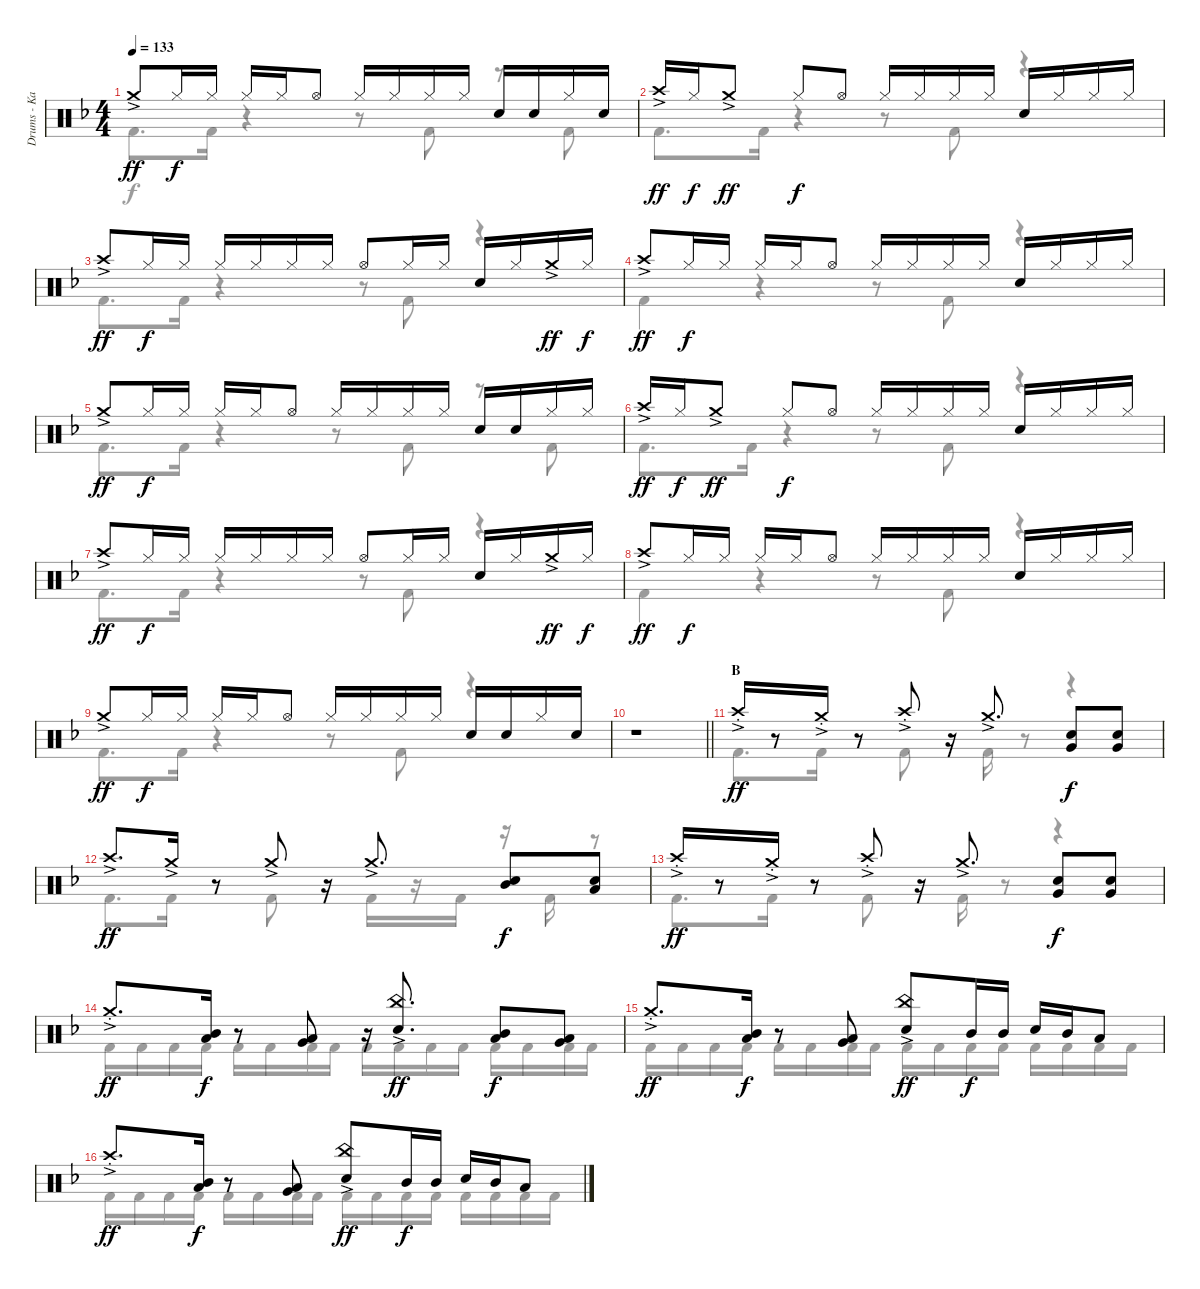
\track ("Drums - Kai" "Drums - Ka") {instrument percussion}
\staff {score}
\articulation defaults
\voice
\ts (4 4)
\tempo 133
\clef neutral
\ks f "Crash medium (hit)"{ac}.8{dy ff} "Hi-Hat (closed)".16{dy f} "Hi-Hat (closed)".16 "Hi-Hat (closed)".16 "Hi-Hat (closed)".16 "Hi-Hat (open)".8 "Hi-Hat (closed)".16 "Hi-Hat (closed)".16 "Hi-Hat (closed)".16 "Hi-Hat (closed)".16 "Snare (hit) 2".16 "Snare (hit) 2".16 "Hi-Hat (closed)".16 "Snare (hit) 2".16
|
"Crash high (hit)"{ac}.16{dy ff} "Hi-Hat (closed)".16{dy f} "Crash medium (hit)"{ac}.8{dy ff} "Hi-Hat (closed)".8{dy f} "Hi-Hat (open)".8 "Hi-Hat (closed)".16 "Hi-Hat (closed)".16 "Hi-Hat (closed)".16 "Hi-Hat (closed)".16 "Snare (hit) 2".16 "Hi-Hat (closed)".16 "Hi-Hat (closed)".16 "Hi-Hat (closed)".16 |
"Crash high (hit)"{ac}.8{dy ff} "Hi-Hat (closed)".16{dy f} "Hi-Hat (closed)".16 "Hi-Hat (closed)".16 "Hi-Hat (closed)".16 "Hi-Hat (closed)".16 "Hi-Hat (closed)".16 "Hi-Hat (open)".8 "Hi-Hat (closed)".16 "Hi-Hat (closed)".16 "Snare (hit) 2".16 "Hi-Hat (closed)".16 "Crash medium (hit)"{ac}.16{dy ff} "Hi-Hat (closed)".16{dy f} |
"Crash high (hit)"{ac}.8{dy ff} "Hi-Hat (closed)".16{dy f} "Hi-Hat (closed)".16 "Hi-Hat (closed)".16 "Hi-Hat (closed)".16 "Hi-Hat (open)".8 "Hi-Hat (closed)".16 "Hi-Hat (closed)".16 "Hi-Hat (closed)".16 "Hi-Hat (closed)".16 "Snare (hit) 2".16 "Hi-Hat (closed)".16 "Hi-Hat (closed)".16 "Hi-Hat (closed)".16 |
"Crash medium (hit)"{ac}.8{dy ff} "Hi-Hat (closed)".16{dy f} "Hi-Hat (closed)".16 "Hi-Hat (closed)".16 "Hi-Hat (closed)".16 "Hi-Hat (open)".8 "Hi-Hat (closed)".16 "Hi-Hat (closed)".16 "Hi-Hat (closed)".16 "Hi-Hat (closed)".16 "Snare (hit) 2".16 "Snare (hit) 2".16 "Hi-Hat (closed)".16 "Hi-Hat (closed)".16 |
"Crash high (hit)"{ac}.16{dy ff} "Hi-Hat (closed)".16{dy f} "Crash medium (hit)"{ac}.8{dy ff} "Hi-Hat (closed)".8{dy f} "Hi-Hat (open)".8 "Hi-Hat (closed)".16 "Hi-Hat (closed)".16 "Hi-Hat (closed)".16 "Hi-Hat (closed)".16 "Snare (hit) 2".16 "Hi-Hat (closed)".16 "Hi-Hat (closed)".16 "Hi-Hat (closed)".16 |
"Crash high (hit)"{ac}.8{dy ff} "Hi-Hat (closed)".16{dy f} "Hi-Hat (closed)".16 "Hi-Hat (closed)".16 "Hi-Hat (closed)".16 "Hi-Hat (closed)".16 "Hi-Hat (closed)".16 "Hi-Hat (open)".8 "Hi-Hat (closed)".16 "Hi-Hat (closed)".16 "Snare (hit) 2".16 "Hi-Hat (closed)".16 "Crash medium (hit)"{ac}.16{dy ff} "Hi-Hat (closed)".16{dy f} |
"Crash high (hit)"{ac}.8{dy ff} "Hi-Hat (closed)".16{dy f} "Hi-Hat (closed)".16 "Hi-Hat (closed)".16 "Hi-Hat (closed)".16 "Hi-Hat (open)".8 "Hi-Hat (closed)".16 "Hi-Hat (closed)".16 "Hi-Hat (closed)".16 "Hi-Hat (closed)".16 "Snare (hit) 2".16 "Hi-Hat (closed)".16 "Hi-Hat (closed)".16 "Hi-Hat (closed)".16 |
"Crash medium (hit)"{ac}.8{dy ff} "Hi-Hat (closed)".16{dy f} "Hi-Hat (closed)".16 "Hi-Hat (closed)".16 "Hi-Hat (closed)".16 "Hi-Hat (open)".8 "Hi-Hat (closed)".16 "Hi-Hat (closed)".16 "Hi-Hat (closed)".16 "Hi-Hat (closed)".16 "Snare (hit) 2".16 "Snare (hit) 2".16 "Hi-Hat (closed)".16 "Snare (hit) 2".16 |
\barLineRight lightlight
r.1 |
\section ("" "B")
"Crash high (hit)"{ac st}.16{dy ff} r.8 "Crash medium (hit)"{ac st}.16 r.8 "Crash high (hit)"{ac st}.8 r.16 "Crash medium (hit)"{ac}.8{d} ("Very Low Tom (hit)" "Snare (hit) 2").8{dy f} ("Very Low Tom (hit)" "Snare (hit) 2").8 |
"Crash high (hit)"{ac}.8{d dy ff} "Crash medium (hit)"{ac}.16 r.8 "Crash medium (hit)"{ac}.8 r.16 "Crash medium (hit)"{ac}.8{d} ("Mid Tom (hit)" "Snare (hit) 2").8{dy f} ("Low Tom (hit)" "Snare (hit) 2").8 |
"Crash high (hit)"{ac st}.16{dy ff} r.8 "Crash medium (hit)"{ac st}.16 r.8 "Crash high (hit)"{ac st}.8 r.16 "Crash medium (hit)"{ac}.8{d} ("Very Low Tom (hit)" "Snare (hit) 2").8{dy f} ("Very Low Tom (hit)" "Snare (hit) 2").8 |
"Crash medium (hit)"{ac st}.8{d dy ff} ("Mid Tom (hit)" "Low Tom (hit)").16{dy f} r.8 ("Low Tom (hit)" "Very Low Tom (hit)").8 r.16 ("China (hit)"{ac} "Snare (hit) 2").8{d dy ff} ("Mid Tom (hit)" "Low Tom (hit)").8{dy f} ("Low Tom (hit)" "Very Low Tom (hit)").8 |
"Crash medium (hit)"{ac st}.8{d dy ff} ("Mid Tom (hit)" "Low Tom (hit)").16{dy f} r.8 ("Low Tom (hit)" "Very Low Tom (hit)").8 ("China (hit)"{ac} "Snare (hit) 2").8{dy ff} "Mid Tom (hit)".16{dy f} "Mid Tom (hit)".16 "Snare (hit) 2".16 "Mid Tom (hit)".16 "Low Tom (hit)".8 |
"Crash high (hit)"{ac st}.8{d dy ff} ("Mid Tom (hit)" "Low Tom (hit)").16{dy f} r.8 ("Low Tom (hit)" "Very Low Tom (hit)").8 ("China (hit)"{ac} "Snare (hit) 2").8{dy ff} "Mid Tom (hit)".16{dy f} "Mid Tom (hit)".16 "Snare (hit) 2".16 "Mid Tom (hit)".16 "Low Tom (hit)".8
\voice
\clef neutral
\ottava regular
\simile none
\ks f "Kick (hit) 2".8{d dy f} "Kick (hit) 2".16
r.4 r.8 "Kick (hit) 2".8 r.8 "Kick (hit) 2".8 |
"Kick (hit) 2".8{d} "Kick (hit) 2".16 r.4 r.8 "Kick (hit) 2".8 r.4 |
"Kick (hit) 2".8{d} "Kick (hit) 2".16 r.4 r.8 "Kick (hit) 2".8 r.4 |
"Kick (hit) 2".4 r.4 r.8 "Kick (hit) 2".8 r.4 |
"Kick (hit) 2".8{d} "Kick (hit) 2".16 r.4 r.8 "Kick (hit) 2".8 r.8 "Kick (hit) 2".8 |
"Kick (hit) 2".8{d} "Kick (hit) 2".16 r.4 r.8 "Kick (hit) 2".8 r.4 |
"Kick (hit) 2".8{d} "Kick (hit) 2".16 r.4 r.8 "Kick (hit) 2".8 r.4 |
"Kick (hit) 2".4 r.4 r.8 "Kick (hit) 2".8 r.4 |
"Kick (hit) 2".8{d} "Kick (hit) 2".16 r.4 r.8 "Kick (hit) 2".8 r.4 |
\barLineRight lightlight
|
"Kick (hit) 2".8{d} "Kick (hit) 2".16 r.8 "Kick (hit) 2".8 r.16 "Kick (hit) 2".16 r.8 r.4 |
"Kick (hit) 2".8{d} "Kick (hit) 2".16 r.8 "Kick (hit) 2".8 r.16 "Kick (hit) 2".16 r.16 "Kick (hit) 2".16 r.16 "Kick (hit) 2".16 r.8 |
"Kick (hit) 2".8{d} "Kick (hit) 2".16 r.8 "Kick (hit) 2".8 r.16 "Kick (hit) 2".16 r.8 r.4 |
"Kick (hit) 2".16 "Kick (hit) 2".16 "Kick (hit) 2".16 "Kick (hit) 2".16 "Kick (hit) 2".16 "Kick (hit) 2".16 "Kick (hit) 2".16 "Kick (hit) 2".16 "Kick (hit) 2".16 "Kick (hit) 2".16 "Kick (hit) 2".16 "Kick (hit) 2".16 "Kick (hit) 2".16 "Kick (hit) 2".16 "Kick (hit) 2".16 "Kick (hit) 2".16 |
"Kick (hit) 2".16 "Kick (hit) 2".16 "Kick (hit) 2".16 "Kick (hit) 2".16 "Kick (hit) 2".16 "Kick (hit) 2".16 "Kick (hit) 2".16 "Kick (hit) 2".16 "Kick (hit) 2".16 "Kick (hit) 2".16 "Kick (hit) 2".16 "Kick (hit) 2".16 "Kick (hit) 2".16 "Kick (hit) 2".16 "Kick (hit) 2".16 "Kick (hit) 2".16 |
"Kick (hit) 2".16 "Kick (hit) 2".16 "Kick (hit) 2".16 "Kick (hit) 2".16 "Kick (hit) 2".16 "Kick (hit) 2".16 "Kick (hit) 2".16 "Kick (hit) 2".16 "Kick (hit) 2".16 "Kick (hit) 2".16 "Kick (hit) 2".16 "Kick (hit) 2".16 "Kick (hit) 2".16 "Kick (hit) 2".16 "Kick (hit) 2".16 "Kick (hit) 2".16
